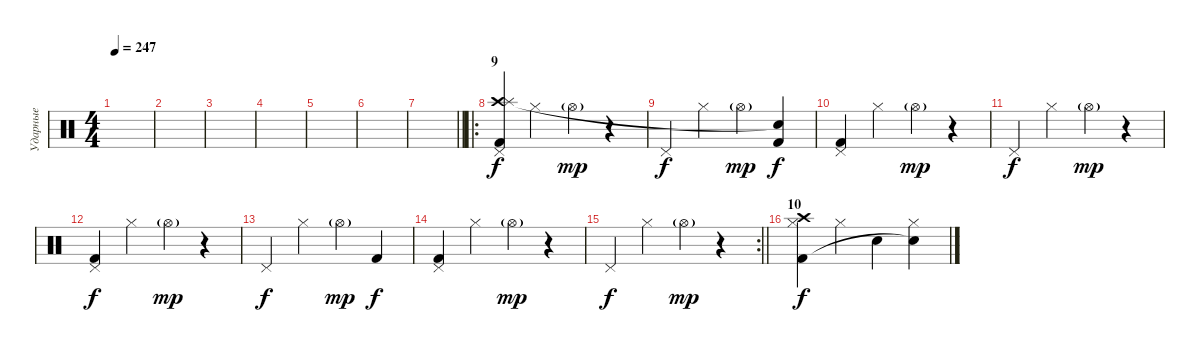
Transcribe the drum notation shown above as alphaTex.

\track ("Ударные" "Ударные") {instrument percussion}
\staff {score}
\articulation defaults
\ts (4 4)
\tempo 247
\clef neutral
\ks c
|
|
|
|
|
|
\barLineRight lightlight
|
\ro
\section ("" "9")
("Pedal Hi-Hat (hit)" "Crash high (hit)" "Splash (hit)" "Kick (hit) 2").4 "Hi-Hat (closed)".4 "Hi-Hat (open)"{g}.4{dy mp} r.4 |
"Pedal Hi-Hat (hit)".4{dy f} "Hi-Hat (closed)".4 "Hi-Hat (open)"{g}.4{dy mp} ("Kick (hit) 2" "Snare (hit)"{t}).4{dy f} |
("Pedal Hi-Hat (hit)" "Kick (hit) 2").4 "Hi-Hat (closed)".4 "Hi-Hat (open)"{g}.4{dy mp} r.4 |
"Pedal Hi-Hat (hit)".4{dy f} "Hi-Hat (closed)".4 "Hi-Hat (open)"{g}.4{dy mp} r.4 |
("Pedal Hi-Hat (hit)" "Kick (hit) 2").4{dy f} "Hi-Hat (closed)".4 "Hi-Hat (open)"{g}.4{dy mp} r.4 |
"Pedal Hi-Hat (hit)".4{dy f} "Hi-Hat (closed)".4 "Hi-Hat (open)"{g}.4{dy mp} "Kick (hit) 2".4{dy f} |
("Pedal Hi-Hat (hit)" "Kick (hit) 2").4 "Hi-Hat (closed)".4 "Hi-Hat (open)"{g}.4{dy mp} r.4 |
\rc 2
\barLineRight lightlight "Pedal Hi-Hat (hit)".4{dy f} "Hi-Hat (closed)".4 "Hi-Hat (open)"{g}.4{dy mp}
r.4 |
\section ("" "10")
("Hi-Hat (closed)" "Kick (hit) 2" "Crash high (hit)").4{dy f} "Hi-Hat (closed)".4 "Snare (hit) 2".4 ("Hi-Hat (closed)" "Snare (hit)"{t}).4
